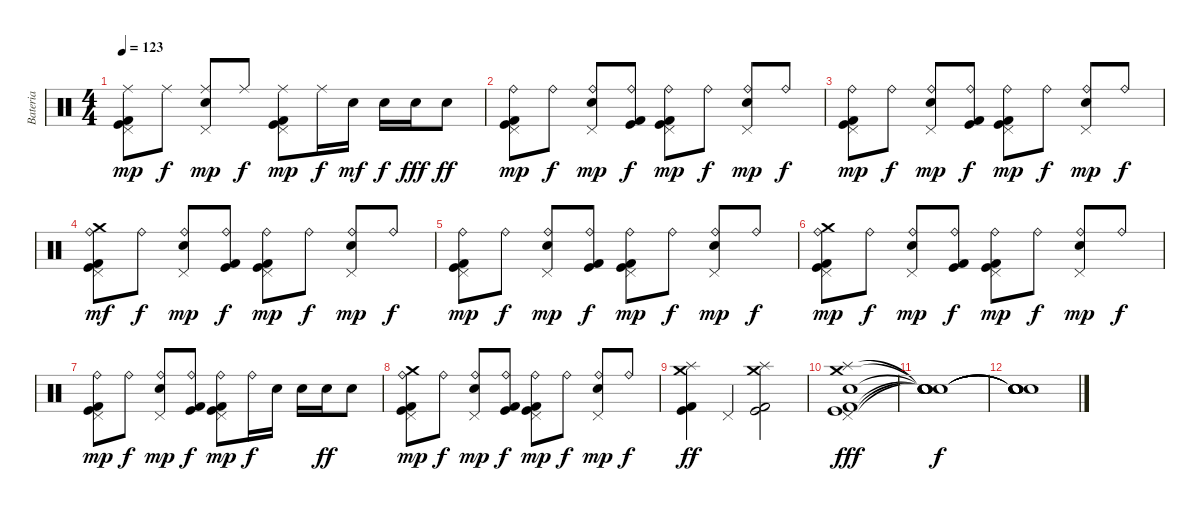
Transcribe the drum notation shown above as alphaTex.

\track ("Bateria" "Bateria") {instrument percussion}
\staff {score}
\articulation defaults
\ts (4 4)
\tempo 123
\clef neutral
\ks c
("Kick (hit) 2" "Pedal Hi-Hat (hit)" "Ride (middle)" "Kick (hit)").8{dy mp} "Ride (middle)".8{dy f} ("Snare (hit) 2" "Pedal Hi-Hat (hit)" "Ride (middle)").8{dy mp} "Ride (middle)".8{dy f} ("Kick (hit) 2" "Pedal Hi-Hat (hit)" "Ride (middle)" "Kick (hit)").8{dy mp} "Ride (middle)".16{dy f} "Snare (hit) 2".16{dy mf} "Snare (hit) 2".16{dy f} "Snare (hit) 2".16{dy fff} "Snare (hit) 2".8{dy ff} |
("Kick (hit) 2" "Pedal Hi-Hat (hit)" "Ride (bell)" "Kick (hit)").8{dy mp} "Ride (bell)".8{dy f} ("Snare (hit) 2" "Pedal Hi-Hat (hit)" "Ride (bell)").8{dy mp} ("Kick (hit) 2" "Ride (bell)" "Kick (hit)").8{dy f} ("Kick (hit) 2" "Pedal Hi-Hat (hit)" "Ride (bell)" "Kick (hit)").8{dy mp} "Ride (bell)".8{dy f} ("Snare (hit) 2" "Pedal Hi-Hat (hit)" "Ride (bell)").8{dy mp} "Ride (bell)".8{dy f} |
("Kick (hit) 2" "Pedal Hi-Hat (hit)" "Ride (bell)" "Kick (hit)").8{dy mp} "Ride (bell)".8{dy f} ("Snare (hit) 2" "Pedal Hi-Hat (hit)" "Ride (bell)").8{dy mp} ("Kick (hit) 2" "Ride (bell)" "Kick (hit)").8{dy f} ("Kick (hit) 2" "Pedal Hi-Hat (hit)" "Ride (bell)" "Kick (hit)").8{dy mp} "Ride (bell)".8{dy f} ("Snare (hit) 2" "Pedal Hi-Hat (hit)" "Ride (bell)").8{dy mp} "Ride (bell)".8{dy f} |
("Kick (hit) 2" "Pedal Hi-Hat (hit)" "Crash medium (hit)" "Ride (bell)" "Kick (hit)").8{dy mf} "Ride (bell)".8{dy f} ("Snare (hit) 2" "Pedal Hi-Hat (hit)" "Ride (bell)").8{dy mp} ("Kick (hit) 2" "Ride (bell)" "Kick (hit)").8{dy f} ("Kick (hit) 2" "Pedal Hi-Hat (hit)" "Ride (bell)" "Kick (hit)").8{dy mp} "Ride (bell)".8{dy f} ("Snare (hit) 2" "Pedal Hi-Hat (hit)" "Ride (bell)").8{dy mp} "Ride (bell)".8{dy f} |
("Kick (hit) 2" "Pedal Hi-Hat (hit)" "Ride (bell)" "Kick (hit)").8{dy mp} "Ride (bell)".8{dy f} ("Snare (hit) 2" "Pedal Hi-Hat (hit)" "Ride (bell)").8{dy mp} ("Kick (hit) 2" "Ride (bell)" "Kick (hit)").8{dy f} ("Kick (hit) 2" "Pedal Hi-Hat (hit)" "Ride (bell)" "Kick (hit)").8{dy mp} "Ride (bell)".8{dy f} ("Snare (hit) 2" "Pedal Hi-Hat (hit)" "Ride (bell)").8{dy mp} "Ride (bell)".8{dy f} |
("Kick (hit) 2" "Pedal Hi-Hat (hit)" "Crash medium (hit)" "Ride (bell)" "Kick (hit)").8{dy mp} "Ride (bell)".8{dy f} ("Snare (hit) 2" "Pedal Hi-Hat (hit)" "Ride (bell)").8{dy mp} ("Kick (hit) 2" "Ride (bell)" "Kick (hit)").8{dy f} ("Kick (hit) 2" "Pedal Hi-Hat (hit)" "Ride (bell)" "Kick (hit)").8{dy mp} "Ride (bell)".8{dy f} ("Snare (hit) 2" "Pedal Hi-Hat (hit)" "Ride (bell)").8{dy mp} "Ride (bell)".8{dy f} |
("Kick (hit) 2" "Pedal Hi-Hat (hit)" "Ride (bell)" "Kick (hit)").8{dy mp} "Ride (bell)".8{dy f} ("Snare (hit) 2" "Pedal Hi-Hat (hit)" "Ride (bell)").8{dy mp} ("Kick (hit) 2" "Ride (bell)" "Kick (hit)").8{dy f} ("Kick (hit) 2" "Pedal Hi-Hat (hit)" "Ride (bell)" "Kick (hit)").8{dy mp} "Ride (bell)".16{dy f} "Snare (hit) 2".16 "Snare (hit) 2".16 "Snare (hit) 2".16{dy ff} "Snare (hit) 2".8 |
("Kick (hit) 2" "Pedal Hi-Hat (hit)" "Crash medium (hit)" "Ride (bell)" "Kick (hit)").8{dy mp} "Ride (bell)".8{dy f} ("Snare (hit) 2" "Pedal Hi-Hat (hit)" "Ride (bell)").8{dy mp} ("Kick (hit) 2" "Ride (bell)" "Kick (hit)").8{dy f} ("Kick (hit) 2" "Pedal Hi-Hat (hit)" "Ride (bell)" "Kick (hit)").8{dy mp} "Ride (bell)".8{dy f} ("Snare (hit) 2" "Pedal Hi-Hat (hit)" "Ride (bell)").8{dy mp} "Ride (bell)".8{dy f} |
("Splash (hit)" "Crash medium (hit)" "Kick (hit)" "Kick (hit) 2").4{dy ff} "Pedal Hi-Hat (hit)".4 ("Splash (hit)" "Crash medium (hit)" "Kick (hit)" "Kick (hit) 2").2 |
("Snare (hit)" "Crash medium (hit)" "Splash (hit)" "Pedal Hi-Hat (hit)" "Kick (hit) 2" "Kick (hit)").1{dy fff volume 0} |
("Snare (hit)"{t} "Snare (hit)"{t} "Snare (hit)"{t} "Snare (hit)"{t} "Snare (hit)"{t} "Snare (hit)"{t}).1{dy f} |
("Snare (hit)"{t} "Snare (hit)"{t} "Snare (hit)"{t} "Snare (hit)"{t} "Snare (hit)"{t} "Snare (hit)"{t}).1
